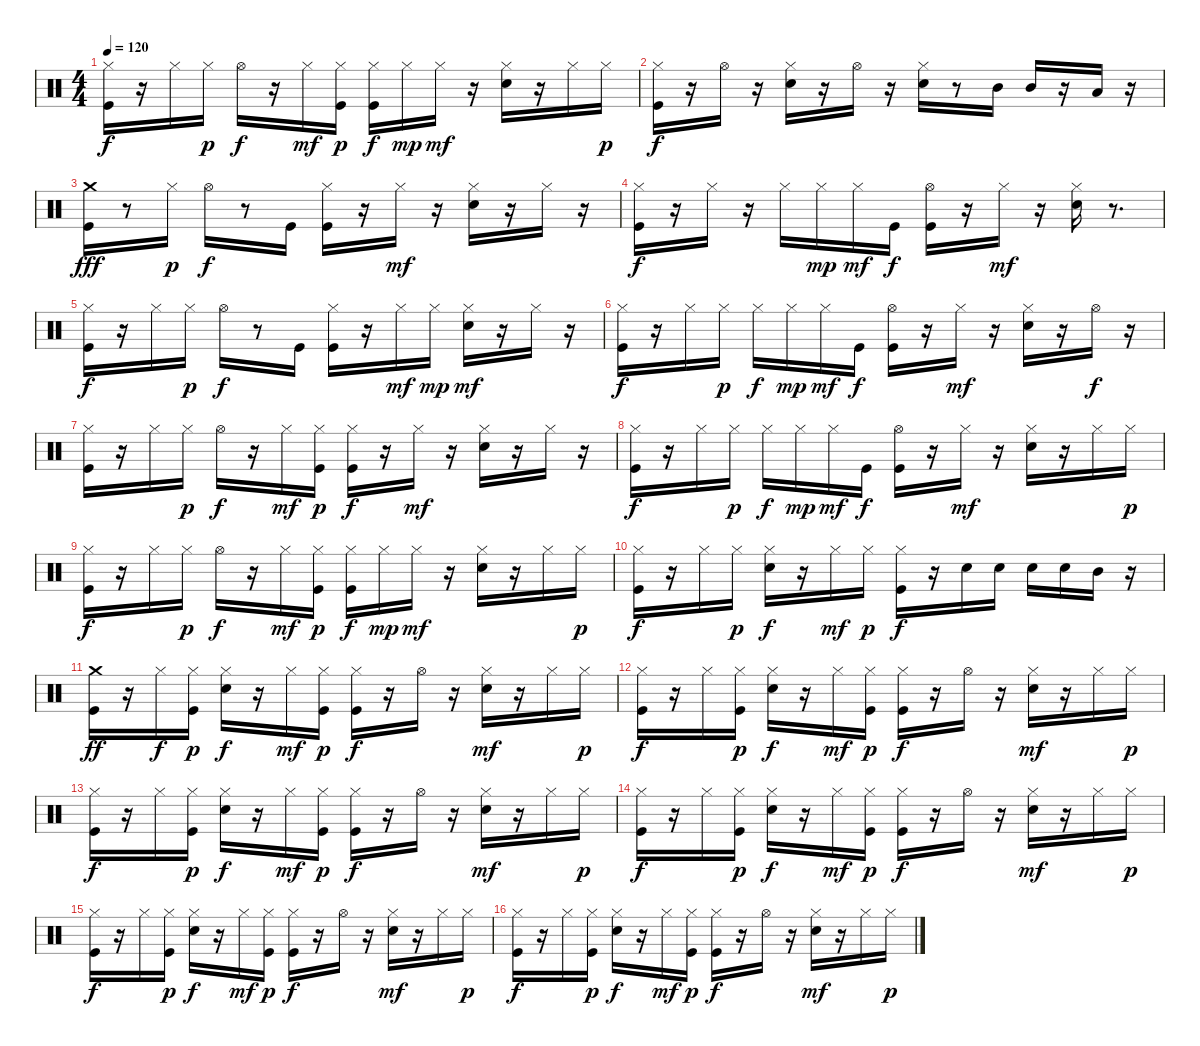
\track "" {instrument percussion}
\staff {score}
\articulation defaults
\ts (4 4)
\tempo 120
\clef neutral
\ks c
("Kick (hit)" "Hi-Hat (closed)").16{dy f} r.16 "Hi-Hat (closed)".16 "Hi-Hat (closed)".16{dy p} "Hi-Hat (open)".16{dy f} r.16 "Hi-Hat (closed)".16{dy mf} ("Kick (hit)" "Hi-Hat (closed)").16{dy p} ("Kick (hit)" "Hi-Hat (closed)").16{dy f} "Hi-Hat (closed)".16{dy mp} "Hi-Hat (closed)".16{dy mf} r.16 ("Electric Snare (hit)" "Hi-Hat (closed)").16 r.16 "Hi-Hat (closed)".16 "Hi-Hat (closed)".16{dy p} |
("Kick (hit)" "Hi-Hat (closed)").16{dy f} r.16 "Hi-Hat (open)".16 r.16 ("Electric Snare (hit)" "Hi-Hat (closed)").16 r.16 "Hi-Hat (open)".16 r.16 ("Electric Snare (hit)" "Hi-Hat (closed)").16 r.8 "Mid Tom (hit)".16 "Mid Tom (hit)".16 r.16 "Low Tom (hit)".16 r.16 |
("Kick (hit)" "Crash medium (hit)").16{dy fff} r.8 "Hi-Hat (closed)".16{dy p} "Hi-Hat (open)".16{dy f} r.8 "Kick (hit)".16 ("Kick (hit)" "Hi-Hat (closed)").16 r.16 "Hi-Hat (closed)".16{dy mf} r.16 ("Electric Snare (hit)" "Hi-Hat (closed)").16 r.16 "Hi-Hat (closed)".16 r.16 |
("Kick (hit)" "Hi-Hat (closed)").16{dy f} r.16 "Hi-Hat (closed)".16 r.16 "Hi-Hat (closed)".16 "Hi-Hat (closed)".16{dy mp} "Hi-Hat (closed)".16{dy mf} "Kick (hit)".16{dy f} ("Kick (hit)" "Hi-Hat (open)").16 r.16 "Hi-Hat (closed)".16{dy mf} r.16 ("Electric Snare (hit)" "Hi-Hat (closed)").16 r.8{d} |
("Kick (hit)" "Hi-Hat (closed)").16{dy f} r.16 "Hi-Hat (closed)".16 "Hi-Hat (closed)".16{dy p} "Hi-Hat (open)".16{dy f} r.8 "Kick (hit)".16 ("Kick (hit)" "Hi-Hat (closed)").16 r.16 "Hi-Hat (closed)".16{dy mf} "Hi-Hat (closed)".16{dy mp} ("Electric Snare (hit)" "Hi-Hat (closed)").16{dy mf} r.16 "Hi-Hat (closed)".16 r.16 |
("Kick (hit)" "Hi-Hat (closed)").16{dy f} r.16 "Hi-Hat (closed)".16 "Hi-Hat (closed)".16{dy p} "Hi-Hat (closed)".16{dy f} "Hi-Hat (closed)".16{dy mp} "Hi-Hat (closed)".16{dy mf} "Kick (hit)".16{dy f} ("Kick (hit)" "Hi-Hat (open)").16 r.16 "Hi-Hat (closed)".16{dy mf} r.16 ("Electric Snare (hit)" "Hi-Hat (closed)").16 r.16 "Hi-Hat (open)".16{dy f} r.16 |
("Kick (hit)" "Hi-Hat (closed)").16 r.16 "Hi-Hat (closed)".16 "Hi-Hat (closed)".16{dy p} "Hi-Hat (open)".16{dy f} r.16 "Hi-Hat (closed)".16{dy mf} ("Kick (hit)" "Hi-Hat (closed)").16{dy p} ("Kick (hit)" "Hi-Hat (closed)").16{dy f} r.16 "Hi-Hat (closed)".16{dy mf} r.16 ("Electric Snare (hit)" "Hi-Hat (closed)").16 r.16 "Hi-Hat (closed)".16 r.16 |
("Kick (hit)" "Hi-Hat (closed)").16{dy f} r.16 "Hi-Hat (closed)".16 "Hi-Hat (closed)".16{dy p} "Hi-Hat (closed)".16{dy f} "Hi-Hat (closed)".16{dy mp} "Hi-Hat (closed)".16{dy mf} "Kick (hit)".16{dy f} ("Kick (hit)" "Hi-Hat (open)").16 r.16 "Hi-Hat (closed)".16{dy mf} r.16 ("Electric Snare (hit)" "Hi-Hat (closed)").16 r.16 "Hi-Hat (closed)".16 "Hi-Hat (closed)".16{dy p} |
("Kick (hit)" "Hi-Hat (closed)").16{dy f} r.16 "Hi-Hat (closed)".16 "Hi-Hat (closed)".16{dy p} "Hi-Hat (open)".16{dy f} r.16 "Hi-Hat (closed)".16{dy mf} ("Kick (hit)" "Hi-Hat (closed)").16{dy p} ("Kick (hit)" "Hi-Hat (closed)").16{dy f} "Hi-Hat (closed)".16{dy mp} "Hi-Hat (closed)".16{dy mf} r.16 ("Electric Snare (hit)" "Hi-Hat (closed)").16 r.16 "Hi-Hat (closed)".16 "Hi-Hat (closed)".16{dy p} |
("Kick (hit)" "Hi-Hat (closed)").16{dy f} r.16 "Hi-Hat (closed)".16 "Hi-Hat (closed)".16{dy p} ("Electric Snare (hit)" "Hi-Hat (closed)").16{dy f} r.16 "Hi-Hat (closed)".16{dy mf} "Hi-Hat (closed)".16{dy p} ("Kick (hit)" "Hi-Hat (closed)").16{dy f} r.16 "Electric Snare (hit)".16 "Electric Snare (hit)".16 "Electric Snare (hit)".16 "Electric Snare (hit)".16 "Mid Tom (hit)".16 r.16 |
("Kick (hit)" "Crash medium (hit)").16{dy ff} r.16 "Hi-Hat (closed)".16{dy f} ("Kick (hit)" "Hi-Hat (closed)").16{dy p} ("Electric Snare (hit)" "Hi-Hat (closed)").16{dy f} r.16 "Hi-Hat (closed)".16{dy mf} ("Kick (hit)" "Hi-Hat (closed)").16{dy p} ("Kick (hit)" "Hi-Hat (closed)").16{dy f} r.16 "Hi-Hat (open)".16 r.16 ("Electric Snare (hit)" "Hi-Hat (closed)").16{dy mf} r.16 "Hi-Hat (closed)".16 "Hi-Hat (closed)".16{dy p} |
("Kick (hit)" "Hi-Hat (closed)").16{dy f} r.16 "Hi-Hat (closed)".16 ("Kick (hit)" "Hi-Hat (closed)").16{dy p} ("Electric Snare (hit)" "Hi-Hat (closed)").16{dy f} r.16 "Hi-Hat (closed)".16{dy mf} ("Kick (hit)" "Hi-Hat (closed)").16{dy p} ("Kick (hit)" "Hi-Hat (closed)").16{dy f} r.16 "Hi-Hat (open)".16 r.16 ("Electric Snare (hit)" "Hi-Hat (closed)").16{dy mf} r.16 "Hi-Hat (closed)".16 "Hi-Hat (closed)".16{dy p} |
("Kick (hit)" "Hi-Hat (closed)").16{dy f} r.16 "Hi-Hat (closed)".16 ("Kick (hit)" "Hi-Hat (closed)").16{dy p} ("Electric Snare (hit)" "Hi-Hat (closed)").16{dy f} r.16 "Hi-Hat (closed)".16{dy mf} ("Kick (hit)" "Hi-Hat (closed)").16{dy p} ("Kick (hit)" "Hi-Hat (closed)").16{dy f} r.16 "Hi-Hat (open)".16 r.16 ("Electric Snare (hit)" "Hi-Hat (closed)").16{dy mf} r.16 "Hi-Hat (closed)".16 "Hi-Hat (closed)".16{dy p} |
("Kick (hit)" "Hi-Hat (closed)").16{dy f} r.16 "Hi-Hat (closed)".16 ("Kick (hit)" "Hi-Hat (closed)").16{dy p} ("Electric Snare (hit)" "Hi-Hat (closed)").16{dy f} r.16 "Hi-Hat (closed)".16{dy mf} ("Kick (hit)" "Hi-Hat (closed)").16{dy p} ("Kick (hit)" "Hi-Hat (closed)").16{dy f} r.16 "Hi-Hat (open)".16 r.16 ("Electric Snare (hit)" "Hi-Hat (closed)").16{dy mf} r.16 "Hi-Hat (closed)".16 "Hi-Hat (closed)".16{dy p} |
("Kick (hit)" "Hi-Hat (closed)").16{dy f} r.16 "Hi-Hat (closed)".16 ("Kick (hit)" "Hi-Hat (closed)").16{dy p} ("Electric Snare (hit)" "Hi-Hat (closed)").16{dy f} r.16 "Hi-Hat (closed)".16{dy mf} ("Kick (hit)" "Hi-Hat (closed)").16{dy p} ("Kick (hit)" "Hi-Hat (closed)").16{dy f} r.16 "Hi-Hat (open)".16 r.16 ("Electric Snare (hit)" "Hi-Hat (closed)").16{dy mf} r.16 "Hi-Hat (closed)".16 "Hi-Hat (closed)".16{dy p} |
("Kick (hit)" "Hi-Hat (closed)").16{dy f} r.16 "Hi-Hat (closed)".16 ("Kick (hit)" "Hi-Hat (closed)").16{dy p} ("Electric Snare (hit)" "Hi-Hat (closed)").16{dy f} r.16 "Hi-Hat (closed)".16{dy mf} ("Kick (hit)" "Hi-Hat (closed)").16{dy p} ("Kick (hit)" "Hi-Hat (closed)").16{dy f} r.16 "Hi-Hat (open)".16 r.16 ("Electric Snare (hit)" "Hi-Hat (closed)").16{dy mf} r.16 "Hi-Hat (closed)".16 "Hi-Hat (closed)".16{dy p}
